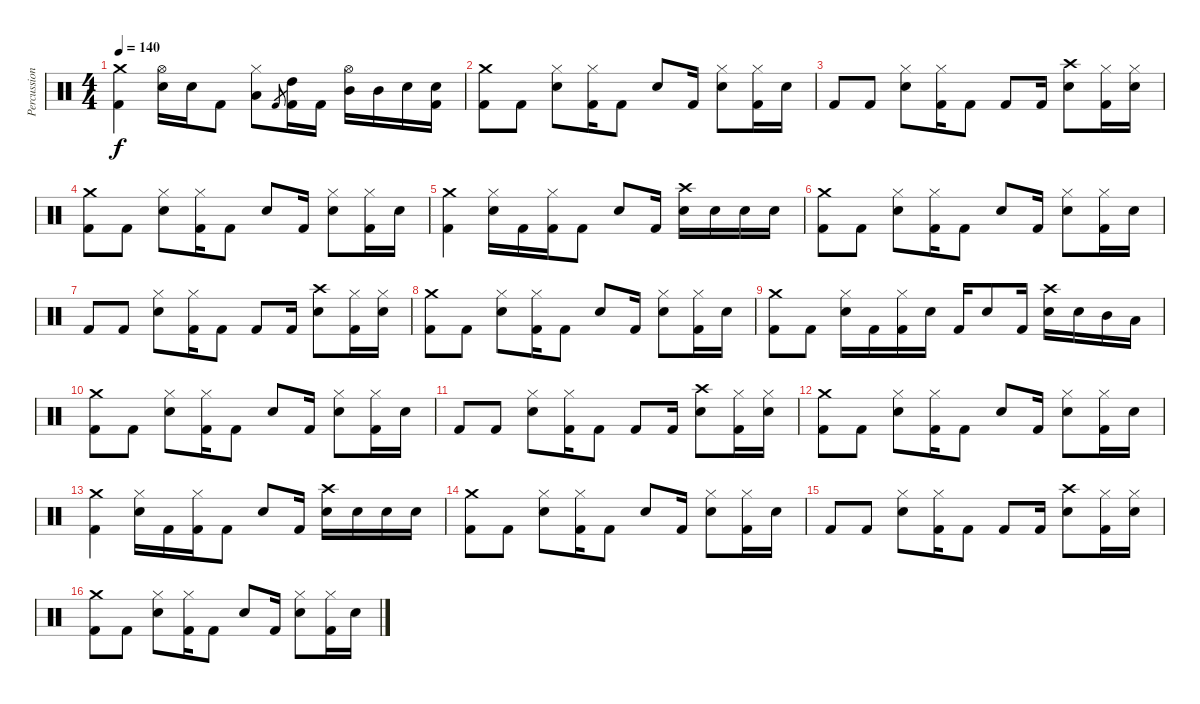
\track ("Percussion" "Percussion") {instrument percussion}
\staff {score}
\articulation defaults
\ts (4 4)
\tempo 140
\clef neutral
\ks c
("Crash medium (hit)" "Kick (hit) 2").4{dy f} ("Hi-Hat (open)" "Electric Snare (hit)").16 "Electric Snare (hit)".16 "Kick (hit) 2".8 ("Hi-Hat (closed)" "Low Tom (hit)").8 "Kick (hit) 2".8{gr} ("High Tom (hit)" "Kick (hit) 2").16 "Kick (hit) 2".16 ("Hi-Hat (open)" "Mid Tom (hit)").16 "Mid Tom (hit)".16 "Electric Snare (hit)".16 ("Electric Snare (hit)" "Kick (hit) 2").16 |
("Crash medium (hit)" "Kick (hit) 2").8 "Kick (hit) 2".8 ("Hi-Hat (closed)" "Electric Snare (hit)").8 ("Hi-Hat (closed)" "Kick (hit) 2").16 "Kick (hit) 2".8 "Electric Snare (hit)".8 "Kick (hit) 2".16 ("Hi-Hat (closed)" "Electric Snare (hit)").8 ("Hi-Hat (closed)" "Kick (hit) 2").16 "Electric Snare (hit)".16 |
"Kick (hit) 2".8 "Kick (hit) 2".8 ("Hi-Hat (closed)" "Electric Snare (hit)").8 ("Hi-Hat (closed)" "Kick (hit) 2").16 "Kick (hit) 2".8 "Kick (hit) 2".8 "Kick (hit) 2".16 ("Crash high (hit)" "Electric Snare (hit)").8 ("Hi-Hat (closed)" "Kick (hit) 2").16 ("Hi-Hat (closed)" "Electric Snare (hit)").16 |
("Crash medium (hit)" "Kick (hit) 2").8 "Kick (hit) 2".8 ("Hi-Hat (closed)" "Electric Snare (hit)").8 ("Hi-Hat (closed)" "Kick (hit) 2").16 "Kick (hit) 2".8 "Electric Snare (hit)".8 "Kick (hit) 2".16 ("Hi-Hat (closed)" "Electric Snare (hit)").8 ("Hi-Hat (closed)" "Kick (hit) 2").16 "Electric Snare (hit)".16 |
("Crash medium (hit)" "Kick (hit) 2").4 ("Hi-Hat (closed)" "Electric Snare (hit)").16 "Kick (hit) 2".16 ("Hi-Hat (closed)" "Kick (hit) 2").16 "Kick (hit) 2".8 "Electric Snare (hit)".8 "Kick (hit) 2".16 ("Crash high (hit)" "Electric Snare (hit)").16 "Electric Snare (hit)".16 "Electric Snare (hit)".16 "Electric Snare (hit)".16 |
("Crash medium (hit)" "Kick (hit) 2").8 "Kick (hit) 2".8 ("Hi-Hat (closed)" "Electric Snare (hit)").8 ("Hi-Hat (closed)" "Kick (hit) 2").16 "Kick (hit) 2".8 "Electric Snare (hit)".8 "Kick (hit) 2".16 ("Hi-Hat (closed)" "Electric Snare (hit)").8 ("Hi-Hat (closed)" "Kick (hit) 2").16 "Electric Snare (hit)".16 |
"Kick (hit) 2".8 "Kick (hit) 2".8 ("Hi-Hat (closed)" "Electric Snare (hit)").8 ("Hi-Hat (closed)" "Kick (hit) 2").16 "Kick (hit) 2".8 "Kick (hit) 2".8 "Kick (hit) 2".16 ("Crash high (hit)" "Electric Snare (hit)").8 ("Hi-Hat (closed)" "Kick (hit) 2").16 ("Hi-Hat (closed)" "Electric Snare (hit)").16 |
("Crash medium (hit)" "Kick (hit) 2").8 "Kick (hit) 2".8 ("Hi-Hat (closed)" "Electric Snare (hit)").8 ("Hi-Hat (closed)" "Kick (hit) 2").16 "Kick (hit) 2".8 "Electric Snare (hit)".8 "Kick (hit) 2".16 ("Hi-Hat (closed)" "Electric Snare (hit)").8 ("Hi-Hat (closed)" "Kick (hit) 2").16 "Electric Snare (hit)".16 |
("Crash medium (hit)" "Kick (hit) 2").8 "Kick (hit) 2".8 ("Hi-Hat (closed)" "Electric Snare (hit)").16 "Kick (hit) 2".16 ("Hi-Hat (closed)" "Kick (hit) 2").16 "Electric Snare (hit)".16 "Kick (hit) 2".16 "Electric Snare (hit)".8 "Kick (hit) 2".16 ("Crash high (hit)" "Electric Snare (hit)").16 "Electric Snare (hit)".16 "Mid Tom (hit)".16 "Low Floor Tom (hit)".16 |
("Crash medium (hit)" "Kick (hit) 2").8 "Kick (hit) 2".8 ("Hi-Hat (closed)" "Electric Snare (hit)").8 ("Hi-Hat (closed)" "Kick (hit) 2").16 "Kick (hit) 2".8 "Electric Snare (hit)".8 "Kick (hit) 2".16 ("Hi-Hat (closed)" "Electric Snare (hit)").8 ("Hi-Hat (closed)" "Kick (hit) 2").16 "Electric Snare (hit)".16 |
"Kick (hit) 2".8 "Kick (hit) 2".8 ("Hi-Hat (closed)" "Electric Snare (hit)").8 ("Hi-Hat (closed)" "Kick (hit) 2").16 "Kick (hit) 2".8 "Kick (hit) 2".8 "Kick (hit) 2".16 ("Crash high (hit)" "Electric Snare (hit)").8 ("Hi-Hat (closed)" "Kick (hit) 2").16 ("Hi-Hat (closed)" "Electric Snare (hit)").16 |
("Crash medium (hit)" "Kick (hit) 2").8 "Kick (hit) 2".8 ("Hi-Hat (closed)" "Electric Snare (hit)").8 ("Hi-Hat (closed)" "Kick (hit) 2").16 "Kick (hit) 2".8 "Electric Snare (hit)".8 "Kick (hit) 2".16 ("Hi-Hat (closed)" "Electric Snare (hit)").8 ("Hi-Hat (closed)" "Kick (hit) 2").16 "Electric Snare (hit)".16 |
("Crash medium (hit)" "Kick (hit) 2").4 ("Hi-Hat (closed)" "Electric Snare (hit)").16 "Kick (hit) 2".16 ("Hi-Hat (closed)" "Kick (hit) 2").16 "Kick (hit) 2".8 "Electric Snare (hit)".8 "Kick (hit) 2".16 ("Crash high (hit)" "Electric Snare (hit)").16 "Electric Snare (hit)".16 "Electric Snare (hit)".16 "Electric Snare (hit)".16 |
("Crash medium (hit)" "Kick (hit) 2").8 "Kick (hit) 2".8 ("Hi-Hat (closed)" "Electric Snare (hit)").8 ("Hi-Hat (closed)" "Kick (hit) 2").16 "Kick (hit) 2".8 "Electric Snare (hit)".8 "Kick (hit) 2".16 ("Hi-Hat (closed)" "Electric Snare (hit)").8 ("Hi-Hat (closed)" "Kick (hit) 2").16 "Electric Snare (hit)".16 |
"Kick (hit) 2".8 "Kick (hit) 2".8 ("Hi-Hat (closed)" "Electric Snare (hit)").8 ("Hi-Hat (closed)" "Kick (hit) 2").16 "Kick (hit) 2".8 "Kick (hit) 2".8 "Kick (hit) 2".16 ("Crash high (hit)" "Electric Snare (hit)").8 ("Hi-Hat (closed)" "Kick (hit) 2").16 ("Hi-Hat (closed)" "Electric Snare (hit)").16 |
("Crash medium (hit)" "Kick (hit) 2").8 "Kick (hit) 2".8 ("Hi-Hat (closed)" "Electric Snare (hit)").8 ("Hi-Hat (closed)" "Kick (hit) 2").16 "Kick (hit) 2".8 "Electric Snare (hit)".8 "Kick (hit) 2".16 ("Hi-Hat (closed)" "Electric Snare (hit)").8 ("Hi-Hat (closed)" "Kick (hit) 2").16 "Electric Snare (hit)".16
